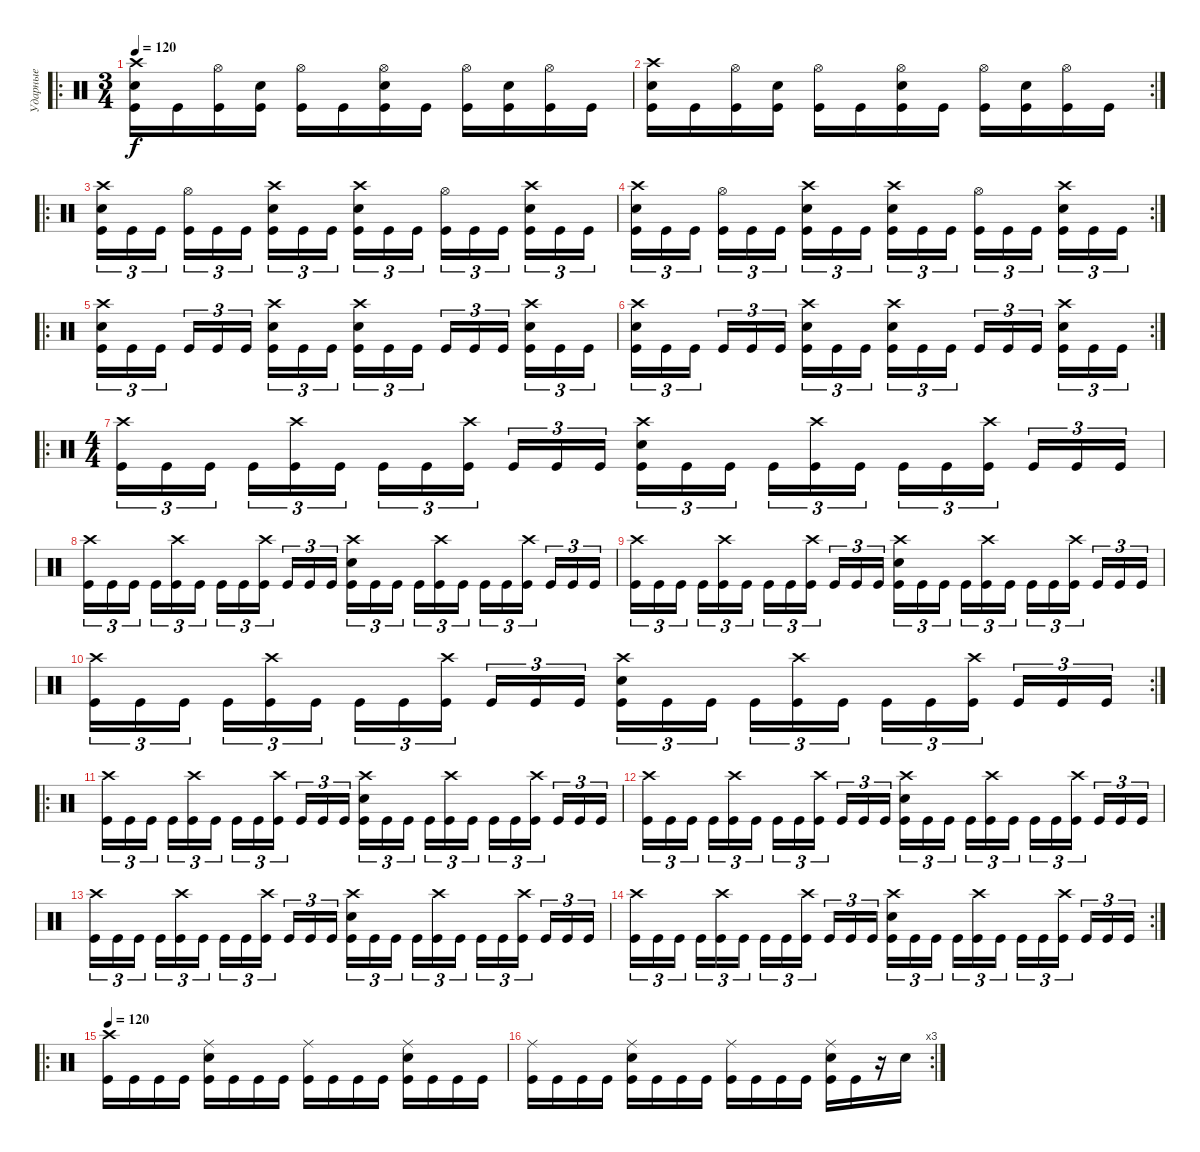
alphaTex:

\track ("Ударные" "Ударные") {instrument percussion}
\staff {score}
\articulation defaults
\ro
\ts (3 4)
\tempo 120
\clef neutral
\ks c
("Crash high (hit)" "Snare (hit) 2" "Kick (hit)").16{dy f} "Kick (hit)".16 ("Hi-Hat (open)" "Kick (hit)").16 ("Snare (hit) 2" "Kick (hit)").16 ("Hi-Hat (open)" "Kick (hit)").16 "Kick (hit)".16 ("Hi-Hat (open)" "Snare (hit) 2" "Kick (hit)").16 "Kick (hit)".16 ("Hi-Hat (open)" "Kick (hit)").16 ("Snare (hit) 2" "Kick (hit)").16 ("Hi-Hat (open)" "Kick (hit)").16 "Kick (hit)".16 |
\rc 2
("Crash high (hit)" "Snare (hit) 2" "Kick (hit)").16 "Kick (hit)".16 ("Hi-Hat (open)" "Kick (hit)").16 ("Snare (hit) 2" "Kick (hit)").16 ("Hi-Hat (open)" "Kick (hit)").16 "Kick (hit)".16 ("Hi-Hat (open)" "Snare (hit) 2" "Kick (hit)").16 "Kick (hit)".16 ("Hi-Hat (open)" "Kick (hit)").16 ("Snare (hit) 2" "Kick (hit)").16 ("Hi-Hat (open)" "Kick (hit)").16 "Kick (hit)".16 |
\ro
("Crash high (hit)" "Snare (hit) 2" "Kick (hit)").16{tu (3 2)} "Kick (hit)".16{tu (3 2)} "Kick (hit)".16{tu (3 2) beam splitsecondary} ("Hi-Hat (open)" "Kick (hit)").16{tu (3 2)} "Kick (hit)".16{tu (3 2)} "Kick (hit)".16{tu (3 2)} ("Crash high (hit)" "Snare (hit) 2" "Kick (hit)").16{tu (3 2)} "Kick (hit)".16{tu (3 2)} "Kick (hit)".16{tu (3 2) beam splitsecondary} ("Crash high (hit)" "Snare (hit) 2" "Kick (hit)").16{tu (3 2)} "Kick (hit)".16{tu (3 2)} "Kick (hit)".16{tu (3 2)} ("Hi-Hat (open)" "Kick (hit)").16{tu (3 2)} "Kick (hit)".16{tu (3 2)} "Kick (hit)".16{tu (3 2) beam splitsecondary} ("Crash high (hit)" "Snare (hit) 2" "Kick (hit)").16{tu (3 2)} "Kick (hit)".16{tu (3 2)} "Kick (hit)".16{tu (3 2)} |
\rc 2
("Crash high (hit)" "Snare (hit) 2" "Kick (hit)").16{tu (3 2)} "Kick (hit)".16{tu (3 2)} "Kick (hit)".16{tu (3 2) beam splitsecondary} ("Hi-Hat (open)" "Kick (hit)").16{tu (3 2)} "Kick (hit)".16{tu (3 2)} "Kick (hit)".16{tu (3 2)} ("Crash high (hit)" "Snare (hit) 2" "Kick (hit)").16{tu (3 2)} "Kick (hit)".16{tu (3 2)} "Kick (hit)".16{tu (3 2) beam splitsecondary} ("Crash high (hit)" "Snare (hit) 2" "Kick (hit)").16{tu (3 2)} "Kick (hit)".16{tu (3 2)} "Kick (hit)".16{tu (3 2)} ("Hi-Hat (open)" "Kick (hit)").16{tu (3 2)} "Kick (hit)".16{tu (3 2)} "Kick (hit)".16{tu (3 2) beam splitsecondary} ("Crash high (hit)" "Snare (hit) 2" "Kick (hit)").16{tu (3 2)} "Kick (hit)".16{tu (3 2)} "Kick (hit)".16{tu (3 2)} |
\ro
("Crash high (hit)" "Snare (hit) 2" "Kick (hit)").16{tu (3 2)} "Kick (hit)".16{tu (3 2)} "Kick (hit)".16{tu (3 2) beam splitsecondary} "Kick (hit)".16{tu (3 2)} "Kick (hit)".16{tu (3 2)} "Kick (hit)".16{tu (3 2)} ("Crash high (hit)" "Snare (hit) 2" "Kick (hit)").16{tu (3 2)} "Kick (hit)".16{tu (3 2)} "Kick (hit)".16{tu (3 2) beam splitsecondary} ("Crash high (hit)" "Snare (hit) 2" "Kick (hit)").16{tu (3 2)} "Kick (hit)".16{tu (3 2)} "Kick (hit)".16{tu (3 2)} "Kick (hit)".16{tu (3 2)} "Kick (hit)".16{tu (3 2)} "Kick (hit)".16{tu (3 2) beam splitsecondary} ("Crash high (hit)" "Snare (hit) 2" "Kick (hit)").16{tu (3 2)} "Kick (hit)".16{tu (3 2)} "Kick (hit)".16{tu (3 2)} |
\rc 2
("Crash high (hit)" "Snare (hit) 2" "Kick (hit)").16{tu (3 2)} "Kick (hit)".16{tu (3 2)} "Kick (hit)".16{tu (3 2) beam splitsecondary} "Kick (hit)".16{tu (3 2)} "Kick (hit)".16{tu (3 2)} "Kick (hit)".16{tu (3 2)} ("Crash high (hit)" "Snare (hit) 2" "Kick (hit)").16{tu (3 2)} "Kick (hit)".16{tu (3 2)} "Kick (hit)".16{tu (3 2) beam splitsecondary} ("Crash high (hit)" "Snare (hit) 2" "Kick (hit)").16{tu (3 2)} "Kick (hit)".16{tu (3 2)} "Kick (hit)".16{tu (3 2)} "Kick (hit)".16{tu (3 2)} "Kick (hit)".16{tu (3 2)} "Kick (hit)".16{tu (3 2) beam splitsecondary} ("Crash high (hit)" "Snare (hit) 2" "Kick (hit)").16{tu (3 2)} "Kick (hit)".16{tu (3 2)} "Kick (hit)".16{tu (3 2)} |
\ro
\ts (4 4)
("Crash high (hit)" "Kick (hit)").16{tu (3 2)} "Kick (hit)".16{tu (3 2)} "Kick (hit)".16{tu (3 2) beam splitsecondary} "Kick (hit)".16{tu (3 2)} ("Crash high (hit)" "Kick (hit)").16{tu (3 2)} "Kick (hit)".16{tu (3 2)} "Kick (hit)".16{tu (3 2)} "Kick (hit)".16{tu (3 2)} ("Crash high (hit)" "Kick (hit)").16{tu (3 2) beam splitsecondary} "Kick (hit)".16{tu (3 2)} "Kick (hit)".16{tu (3 2)} "Kick (hit)".16{tu (3 2)} ("Crash high (hit)" "Snare (hit) 2" "Kick (hit)").16{tu (3 2)} "Kick (hit)".16{tu (3 2)} "Kick (hit)".16{tu (3 2) beam splitsecondary} "Kick (hit)".16{tu (3 2)} ("Crash high (hit)" "Kick (hit)").16{tu (3 2)} "Kick (hit)".16{tu (3 2)} "Kick (hit)".16{tu (3 2)} "Kick (hit)".16{tu (3 2)} ("Crash high (hit)" "Kick (hit)").16{tu (3 2) beam splitsecondary} "Kick (hit)".16{tu (3 2)} "Kick (hit)".16{tu (3 2)} "Kick (hit)".16{tu (3 2)} |
("Crash high (hit)" "Kick (hit)").16{tu (3 2)} "Kick (hit)".16{tu (3 2)} "Kick (hit)".16{tu (3 2) beam splitsecondary} "Kick (hit)".16{tu (3 2)} ("Crash high (hit)" "Kick (hit)").16{tu (3 2)} "Kick (hit)".16{tu (3 2)} "Kick (hit)".16{tu (3 2)} "Kick (hit)".16{tu (3 2)} ("Crash high (hit)" "Kick (hit)").16{tu (3 2) beam splitsecondary} "Kick (hit)".16{tu (3 2)} "Kick (hit)".16{tu (3 2)} "Kick (hit)".16{tu (3 2)} ("Crash high (hit)" "Snare (hit) 2" "Kick (hit)").16{tu (3 2)} "Kick (hit)".16{tu (3 2)} "Kick (hit)".16{tu (3 2) beam splitsecondary} "Kick (hit)".16{tu (3 2)} ("Crash high (hit)" "Kick (hit)").16{tu (3 2)} "Kick (hit)".16{tu (3 2)} "Kick (hit)".16{tu (3 2)} "Kick (hit)".16{tu (3 2)} ("Crash high (hit)" "Kick (hit)").16{tu (3 2) beam splitsecondary} "Kick (hit)".16{tu (3 2)} "Kick (hit)".16{tu (3 2)} "Kick (hit)".16{tu (3 2)} |
("Crash high (hit)" "Kick (hit)").16{tu (3 2)} "Kick (hit)".16{tu (3 2)} "Kick (hit)".16{tu (3 2) beam splitsecondary} "Kick (hit)".16{tu (3 2)} ("Crash high (hit)" "Kick (hit)").16{tu (3 2)} "Kick (hit)".16{tu (3 2)} "Kick (hit)".16{tu (3 2)} "Kick (hit)".16{tu (3 2)} ("Crash high (hit)" "Kick (hit)").16{tu (3 2) beam splitsecondary} "Kick (hit)".16{tu (3 2)} "Kick (hit)".16{tu (3 2)} "Kick (hit)".16{tu (3 2)} ("Crash high (hit)" "Snare (hit) 2" "Kick (hit)").16{tu (3 2)} "Kick (hit)".16{tu (3 2)} "Kick (hit)".16{tu (3 2) beam splitsecondary} "Kick (hit)".16{tu (3 2)} ("Crash high (hit)" "Kick (hit)").16{tu (3 2)} "Kick (hit)".16{tu (3 2)} "Kick (hit)".16{tu (3 2)} "Kick (hit)".16{tu (3 2)} ("Crash high (hit)" "Kick (hit)").16{tu (3 2) beam splitsecondary} "Kick (hit)".16{tu (3 2)} "Kick (hit)".16{tu (3 2)} "Kick (hit)".16{tu (3 2)} |
\rc 2
("Crash high (hit)" "Kick (hit)").16{tu (3 2)} "Kick (hit)".16{tu (3 2)} "Kick (hit)".16{tu (3 2) beam splitsecondary} "Kick (hit)".16{tu (3 2)} ("Crash high (hit)" "Kick (hit)").16{tu (3 2)} "Kick (hit)".16{tu (3 2)} "Kick (hit)".16{tu (3 2)} "Kick (hit)".16{tu (3 2)} ("Crash high (hit)" "Kick (hit)").16{tu (3 2) beam splitsecondary} "Kick (hit)".16{tu (3 2)} "Kick (hit)".16{tu (3 2)} "Kick (hit)".16{tu (3 2)} ("Crash high (hit)" "Snare (hit) 2" "Kick (hit)").16{tu (3 2)} "Kick (hit)".16{tu (3 2)} "Kick (hit)".16{tu (3 2) beam splitsecondary} "Kick (hit)".16{tu (3 2)} ("Crash high (hit)" "Kick (hit)").16{tu (3 2)} "Kick (hit)".16{tu (3 2)} "Kick (hit)".16{tu (3 2)} "Kick (hit)".16{tu (3 2)} ("Crash high (hit)" "Kick (hit)").16{tu (3 2) beam splitsecondary} "Kick (hit)".16{tu (3 2)} "Kick (hit)".16{tu (3 2)} "Kick (hit)".16{tu (3 2)} |
\ro
("Crash high (hit)" "Kick (hit)").16{tu (3 2)} "Kick (hit)".16{tu (3 2)} "Kick (hit)".16{tu (3 2) beam splitsecondary} "Kick (hit)".16{tu (3 2)} ("Crash high (hit)" "Kick (hit)").16{tu (3 2)} "Kick (hit)".16{tu (3 2)} "Kick (hit)".16{tu (3 2)} "Kick (hit)".16{tu (3 2)} ("Crash high (hit)" "Kick (hit)").16{tu (3 2) beam splitsecondary} "Kick (hit)".16{tu (3 2)} "Kick (hit)".16{tu (3 2)} "Kick (hit)".16{tu (3 2)} ("Crash high (hit)" "Snare (hit) 2" "Kick (hit)").16{tu (3 2)} "Kick (hit)".16{tu (3 2)} "Kick (hit)".16{tu (3 2) beam splitsecondary} "Kick (hit)".16{tu (3 2)} ("Crash high (hit)" "Kick (hit)").16{tu (3 2)} "Kick (hit)".16{tu (3 2)} "Kick (hit)".16{tu (3 2)} "Kick (hit)".16{tu (3 2)} ("Crash high (hit)" "Kick (hit)").16{tu (3 2) beam splitsecondary} "Kick (hit)".16{tu (3 2)} "Kick (hit)".16{tu (3 2)} "Kick (hit)".16{tu (3 2)} |
("Crash high (hit)" "Kick (hit)").16{tu (3 2)} "Kick (hit)".16{tu (3 2)} "Kick (hit)".16{tu (3 2) beam splitsecondary} "Kick (hit)".16{tu (3 2)} ("Crash high (hit)" "Kick (hit)").16{tu (3 2)} "Kick (hit)".16{tu (3 2)} "Kick (hit)".16{tu (3 2)} "Kick (hit)".16{tu (3 2)} ("Crash high (hit)" "Kick (hit)").16{tu (3 2) beam splitsecondary} "Kick (hit)".16{tu (3 2)} "Kick (hit)".16{tu (3 2)} "Kick (hit)".16{tu (3 2)} ("Crash high (hit)" "Snare (hit) 2" "Kick (hit)").16{tu (3 2)} "Kick (hit)".16{tu (3 2)} "Kick (hit)".16{tu (3 2) beam splitsecondary} "Kick (hit)".16{tu (3 2)} ("Crash high (hit)" "Kick (hit)").16{tu (3 2)} "Kick (hit)".16{tu (3 2)} "Kick (hit)".16{tu (3 2)} "Kick (hit)".16{tu (3 2)} ("Crash high (hit)" "Kick (hit)").16{tu (3 2) beam splitsecondary} "Kick (hit)".16{tu (3 2)} "Kick (hit)".16{tu (3 2)} "Kick (hit)".16{tu (3 2)} |
("Crash high (hit)" "Kick (hit)").16{tu (3 2)} "Kick (hit)".16{tu (3 2)} "Kick (hit)".16{tu (3 2) beam splitsecondary} "Kick (hit)".16{tu (3 2)} ("Crash high (hit)" "Kick (hit)").16{tu (3 2)} "Kick (hit)".16{tu (3 2)} "Kick (hit)".16{tu (3 2)} "Kick (hit)".16{tu (3 2)} ("Crash high (hit)" "Kick (hit)").16{tu (3 2) beam splitsecondary} "Kick (hit)".16{tu (3 2)} "Kick (hit)".16{tu (3 2)} "Kick (hit)".16{tu (3 2)} ("Crash high (hit)" "Snare (hit) 2" "Kick (hit)").16{tu (3 2)} "Kick (hit)".16{tu (3 2)} "Kick (hit)".16{tu (3 2) beam splitsecondary} "Kick (hit)".16{tu (3 2)} ("Crash high (hit)" "Kick (hit)").16{tu (3 2)} "Kick (hit)".16{tu (3 2)} "Kick (hit)".16{tu (3 2)} "Kick (hit)".16{tu (3 2)} ("Crash high (hit)" "Kick (hit)").16{tu (3 2) beam splitsecondary} "Kick (hit)".16{tu (3 2)} "Kick (hit)".16{tu (3 2)} "Kick (hit)".16{tu (3 2)} |
\rc 2
("Crash high (hit)" "Kick (hit)").16{tu (3 2)} "Kick (hit)".16{tu (3 2)} "Kick (hit)".16{tu (3 2) beam splitsecondary} "Kick (hit)".16{tu (3 2)} ("Crash high (hit)" "Kick (hit)").16{tu (3 2)} "Kick (hit)".16{tu (3 2)} "Kick (hit)".16{tu (3 2)} "Kick (hit)".16{tu (3 2)} ("Crash high (hit)" "Kick (hit)").16{tu (3 2) beam splitsecondary} "Kick (hit)".16{tu (3 2)} "Kick (hit)".16{tu (3 2)} "Kick (hit)".16{tu (3 2)} ("Crash high (hit)" "Snare (hit) 2" "Kick (hit)").16{tu (3 2)} "Kick (hit)".16{tu (3 2)} "Kick (hit)".16{tu (3 2) beam splitsecondary} "Kick (hit)".16{tu (3 2)} ("Crash high (hit)" "Kick (hit)").16{tu (3 2)} "Kick (hit)".16{tu (3 2)} "Kick (hit)".16{tu (3 2)} "Kick (hit)".16{tu (3 2)} ("Crash high (hit)" "Kick (hit)").16{tu (3 2) beam splitsecondary} "Kick (hit)".16{tu (3 2)} "Kick (hit)".16{tu (3 2)} "Kick (hit)".16{tu (3 2)} |
\ro
\tempo 120
("Crash high (hit)" "Kick (hit)").16 "Kick (hit)".16 "Kick (hit)".16 "Kick (hit)".16 ("Ride (middle)" "Snare (hit) 2" "Kick (hit)").16 "Kick (hit)".16 "Kick (hit)".16 "Kick (hit)".16 ("Ride (middle)" "Kick (hit)").16 "Kick (hit)".16 "Kick (hit)".16 "Kick (hit)".16 ("Ride (middle)" "Snare (hit) 2" "Kick (hit)").16 "Kick (hit)".16 "Kick (hit)".16 "Kick (hit)".16 |
\rc 3
("Ride (middle)" "Kick (hit)").16 "Kick (hit)".16 "Kick (hit)".16 "Kick (hit)".16 ("Ride (middle)" "Snare (hit) 2" "Kick (hit)").16 "Kick (hit)".16 "Kick (hit)".16 "Kick (hit)".16 ("Ride (middle)" "Kick (hit)").16 "Kick (hit)".16 "Kick (hit)".16 "Kick (hit)".16 ("Ride (middle)" "Snare (hit) 2" "Kick (hit)").16 "Kick (hit)".16 r.16 "Snare (hit) 2".16
